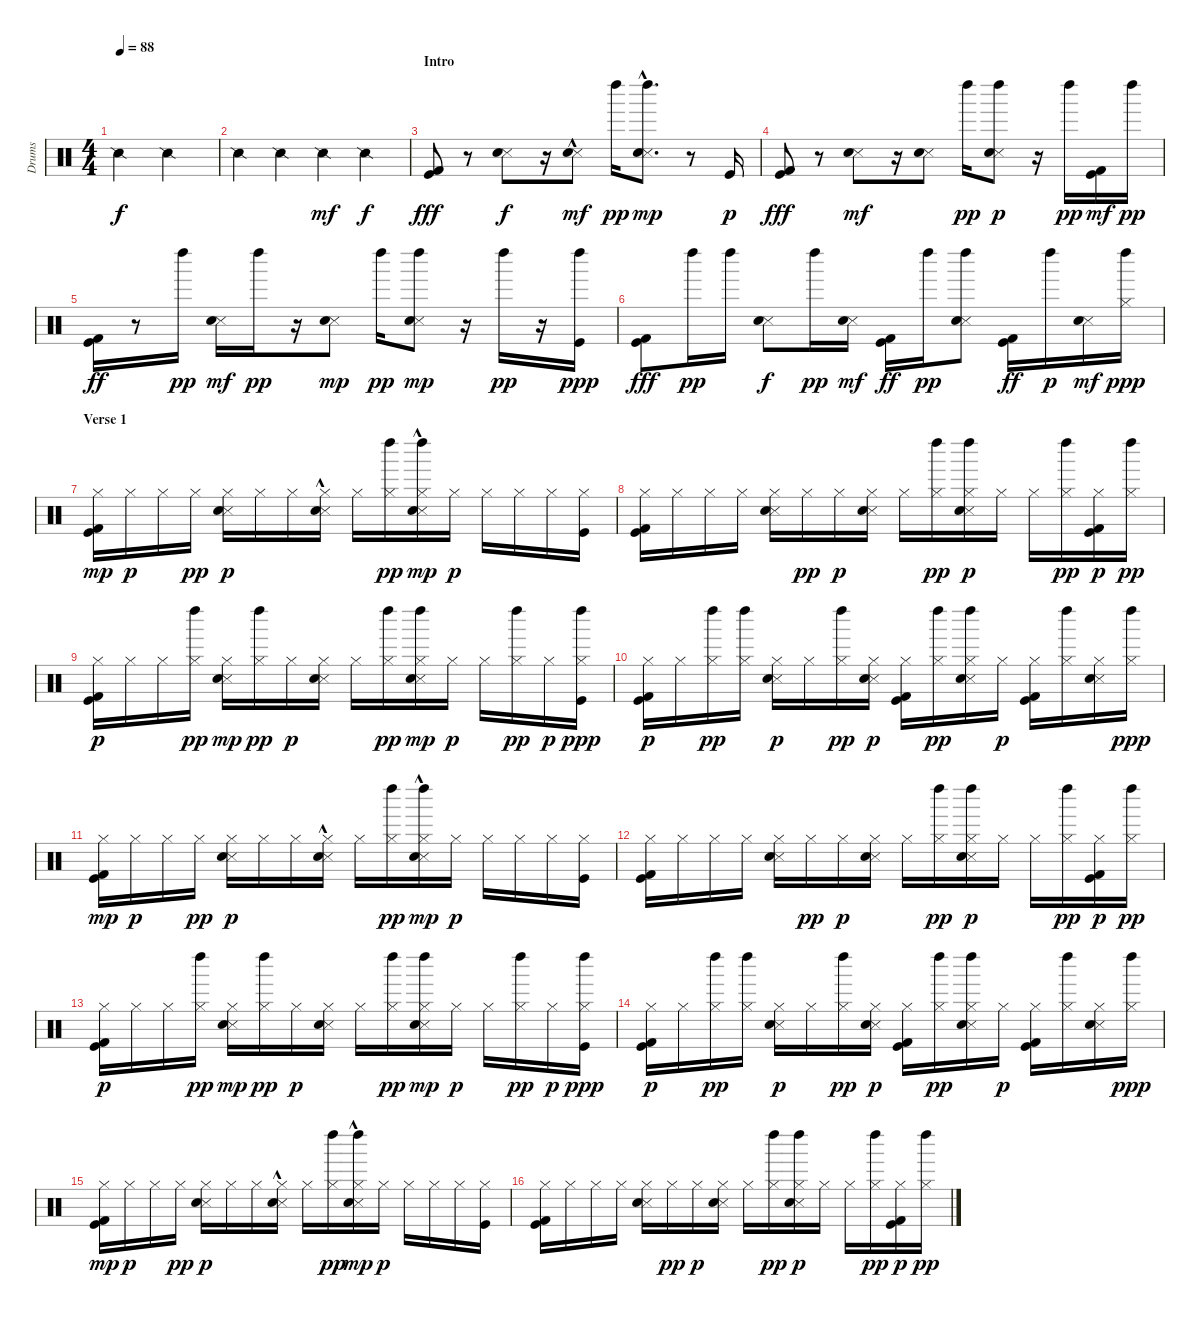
\track ("Drums" "Drums") {instrument percussion}
\staff {score}
\articulation defaults
\ts (4 4)
\tempo 88
\clef neutral
\ks c "Snare (side stick) 2".2{dy f} "Snare (side stick) 2".2
|
"Snare (side stick) 2".4 "Snare (side stick) 2".4 "Snare (side stick) 2".4{dy mf} "Snare (side stick) 2".4{dy f} |
\section ("" "Intro")
("Kick (hit) 2" "Kick (hit)").8{dy fff} r.8 ("Snare (side stick) 3" "Snare (hit) 2").8{dy f} r.16 ("Snare (side stick) 3"{hac} "Snare (hit) 2"{hac}).8{dy mf} "Left Maraca (hit)".16{dy pp} ("Snare (side stick) 3"{hac} "Snare (hit) 2" "Left Maraca (hit)").8{d dy mp} r.8 "Kick (hit)".16{dy p} |
("Kick (hit)" "Kick (hit) 2").8{dy fff} r.8 ("Snare (side stick) 3" "Snare (hit) 2").8{dy mf} r.16 ("Snare (side stick) 3" "Snare (hit) 2").8 "Left Maraca (hit)".16{dy pp} ("Snare (side stick) 3" "Snare (hit) 2" "Left Maraca (hit)").8{dy p} r.16 "Left Maraca (hit)".16{dy pp} ("Kick (hit)" "Kick (hit) 2").16{dy mf} "Left Maraca (hit)".16{dy pp} |
("Kick (hit)" "Kick (hit) 2").16{dy ff} r.8 "Left Maraca (hit)".16{dy pp} ("Snare (side stick) 3" "Snare (hit) 2").16{dy mf} "Left Maraca (hit)".16{dy pp} r.16 ("Snare (side stick) 3" "Snare (hit) 2").8{dy mp} "Left Maraca (hit)".16{dy pp} ("Snare (side stick) 3" "Snare (hit) 2" "Left Maraca (hit)").8{dy mp} r.16 "Left Maraca (hit)".16{dy pp} r.16 ("Kick (hit)" "Left Maraca (hit)").16{dy ppp} |
("Kick (hit)" "Kick (hit) 2").8{dy fff} "Left Maraca (hit)".16{dy pp} "Left Maraca (hit)".16 ("Snare (side stick) 3" "Snare (hit) 2").8{dy f} "Left Maraca (hit)".16{dy pp} ("Snare (side stick) 3" "Snare (hit) 2").16{dy mf} ("Kick (hit) 2" "Kick (hit)").16{dy ff} "Left Maraca (hit)".16{dy pp} ("Snare (side stick) 3" "Snare (hit) 2" "Left Maraca (hit)").8 ("Kick (hit)" "Kick (hit) 2").16{dy ff} "Left Maraca (hit)".16{dy p} ("Snare (side stick) 3" "Snare (hit) 2").16{dy mf} ("Hi-Hat (closed)" "Left Maraca (hit)").16{dy ppp} |
\section ("" "Verse 1")
("Kick (hit) 2" "Kick (hit)" "Hi-Hat (closed)").16{dy mp} "Hi-Hat (closed)".16{dy p} "Hi-Hat (closed)".16 "Hi-Hat (closed)".16{dy pp} ("Snare (side stick) 3" "Snare (hit) 2" "Hi-Hat (closed)").16{dy p} "Hi-Hat (closed)".16 "Hi-Hat (closed)".16 ("Snare (side stick) 3"{hac} "Snare (hit) 2"{hac} "Hi-Hat (closed)").16 "Hi-Hat (closed)".16 ("Hi-Hat (closed)" "Left Maraca (hit)").16{dy pp} ("Snare (side stick) 3"{hac} "Snare (hit) 2" "Hi-Hat (closed)" "Left Maraca (hit)").16{dy mp} "Hi-Hat (closed)".16{dy p} "Hi-Hat (closed)".16 "Hi-Hat (closed)".16 "Hi-Hat (closed)".16 ("Kick (hit)" "Hi-Hat (closed)").16 |
("Kick (hit)" "Kick (hit) 2" "Hi-Hat (closed)").16 "Hi-Hat (closed)".16 "Hi-Hat (closed)".16 "Hi-Hat (closed)".16 ("Snare (side stick) 3" "Snare (hit) 2" "Hi-Hat (closed)").16 "Hi-Hat (closed)".16{dy pp} "Hi-Hat (closed)".16{dy p} ("Snare (side stick) 3" "Snare (hit) 2" "Hi-Hat (closed)").16 "Hi-Hat (closed)".16 ("Hi-Hat (closed)" "Left Maraca (hit)").16{dy pp} ("Snare (side stick) 3" "Snare (hit) 2" "Hi-Hat (closed)" "Left Maraca (hit)").16{dy p} "Hi-Hat (closed)".16 "Hi-Hat (closed)".16 ("Hi-Hat (closed)" "Left Maraca (hit)").16{dy pp} ("Kick (hit)" "Kick (hit) 2" "Hi-Hat (closed)").16{dy p} ("Hi-Hat (closed)" "Left Maraca (hit)").16{dy pp} |
("Kick (hit)" "Kick (hit) 2" "Hi-Hat (closed)").16{dy p} "Hi-Hat (closed)".16 "Hi-Hat (closed)".16 ("Hi-Hat (closed)" "Left Maraca (hit)").16{dy pp} ("Snare (side stick) 3" "Snare (hit) 2" "Hi-Hat (closed)").16{dy mp} ("Hi-Hat (closed)" "Left Maraca (hit)").16{dy pp} "Hi-Hat (closed)".16{dy p} ("Snare (side stick) 3" "Snare (hit) 2" "Hi-Hat (closed)").16 "Hi-Hat (closed)".16 ("Hi-Hat (closed)" "Left Maraca (hit)").16{dy pp} ("Snare (side stick) 3" "Snare (hit) 2" "Hi-Hat (closed)" "Left Maraca (hit)").16{dy mp} "Hi-Hat (closed)".16{dy p} "Hi-Hat (closed)".16 ("Hi-Hat (closed)" "Left Maraca (hit)").16{dy pp} "Hi-Hat (closed)".16{dy p} ("Kick (hit)" "Hi-Hat (closed)" "Left Maraca (hit)").16{dy ppp} |
("Kick (hit)" "Kick (hit) 2" "Hi-Hat (closed)").16{dy p} "Hi-Hat (closed)".16 ("Hi-Hat (closed)" "Left Maraca (hit)").16{dy pp} ("Hi-Hat (closed)" "Left Maraca (hit)").16 ("Snare (side stick) 3" "Snare (hit) 2" "Hi-Hat (closed)").16{dy p} "Hi-Hat (closed)".16 ("Hi-Hat (closed)" "Left Maraca (hit)").16{dy pp} ("Snare (side stick) 3" "Snare (hit) 2" "Hi-Hat (closed)").16{dy p} ("Kick (hit) 2" "Kick (hit)" "Hi-Hat (closed)").16 ("Hi-Hat (closed)" "Left Maraca (hit)").16{dy pp} ("Snare (side stick) 3" "Snare (hit) 2" "Hi-Hat (closed)" "Left Maraca (hit)").16 "Hi-Hat (closed)".16{dy p} ("Kick (hit)" "Kick (hit) 2" "Hi-Hat (closed)").16 ("Hi-Hat (closed)" "Left Maraca (hit)").16 ("Snare (side stick) 3" "Snare (hit) 2" "Hi-Hat (closed)").16 ("Hi-Hat (closed)" "Left Maraca (hit)").16{dy ppp} |
("Kick (hit) 2" "Kick (hit)" "Hi-Hat (closed)").16{dy mp} "Hi-Hat (closed)".16{dy p} "Hi-Hat (closed)".16 "Hi-Hat (closed)".16{dy pp} ("Snare (side stick) 3" "Snare (hit) 2" "Hi-Hat (closed)").16{dy p} "Hi-Hat (closed)".16 "Hi-Hat (closed)".16 ("Snare (side stick) 3"{hac} "Snare (hit) 2"{hac} "Hi-Hat (closed)").16 "Hi-Hat (closed)".16 ("Hi-Hat (closed)" "Left Maraca (hit)").16{dy pp} ("Snare (side stick) 3"{hac} "Snare (hit) 2" "Hi-Hat (closed)" "Left Maraca (hit)").16{dy mp} "Hi-Hat (closed)".16{dy p} "Hi-Hat (closed)".16 "Hi-Hat (closed)".16 "Hi-Hat (closed)".16 ("Kick (hit)" "Hi-Hat (closed)").16 |
("Kick (hit)" "Kick (hit) 2" "Hi-Hat (closed)").16 "Hi-Hat (closed)".16 "Hi-Hat (closed)".16 "Hi-Hat (closed)".16 ("Snare (side stick) 3" "Snare (hit) 2" "Hi-Hat (closed)").16 "Hi-Hat (closed)".16{dy pp} "Hi-Hat (closed)".16{dy p} ("Snare (side stick) 3" "Snare (hit) 2" "Hi-Hat (closed)").16 "Hi-Hat (closed)".16 ("Hi-Hat (closed)" "Left Maraca (hit)").16{dy pp} ("Snare (side stick) 3" "Snare (hit) 2" "Hi-Hat (closed)" "Left Maraca (hit)").16{dy p} "Hi-Hat (closed)".16 "Hi-Hat (closed)".16 ("Hi-Hat (closed)" "Left Maraca (hit)").16{dy pp} ("Kick (hit)" "Kick (hit) 2" "Hi-Hat (closed)").16{dy p} ("Hi-Hat (closed)" "Left Maraca (hit)").16{dy pp} |
("Kick (hit)" "Kick (hit) 2" "Hi-Hat (closed)").16{dy p} "Hi-Hat (closed)".16 "Hi-Hat (closed)".16 ("Hi-Hat (closed)" "Left Maraca (hit)").16{dy pp} ("Snare (side stick) 3" "Snare (hit) 2" "Hi-Hat (closed)").16{dy mp} ("Hi-Hat (closed)" "Left Maraca (hit)").16{dy pp} "Hi-Hat (closed)".16{dy p} ("Snare (side stick) 3" "Snare (hit) 2" "Hi-Hat (closed)").16 "Hi-Hat (closed)".16 ("Hi-Hat (closed)" "Left Maraca (hit)").16{dy pp} ("Snare (side stick) 3" "Snare (hit) 2" "Hi-Hat (closed)" "Left Maraca (hit)").16{dy mp} "Hi-Hat (closed)".16{dy p} "Hi-Hat (closed)".16 ("Hi-Hat (closed)" "Left Maraca (hit)").16{dy pp} "Hi-Hat (closed)".16{dy p} ("Kick (hit)" "Hi-Hat (closed)" "Left Maraca (hit)").16{dy ppp} |
("Kick (hit)" "Kick (hit) 2" "Hi-Hat (closed)").16{dy p} "Hi-Hat (closed)".16 ("Hi-Hat (closed)" "Left Maraca (hit)").16{dy pp} ("Hi-Hat (closed)" "Left Maraca (hit)").16 ("Snare (side stick) 3" "Snare (hit) 2" "Hi-Hat (closed)").16{dy p} "Hi-Hat (closed)".16 ("Hi-Hat (closed)" "Left Maraca (hit)").16{dy pp} ("Snare (side stick) 3" "Snare (hit) 2" "Hi-Hat (closed)").16{dy p} ("Kick (hit) 2" "Kick (hit)" "Hi-Hat (closed)").16 ("Hi-Hat (closed)" "Left Maraca (hit)").16{dy pp} ("Snare (side stick) 3" "Snare (hit) 2" "Hi-Hat (closed)" "Left Maraca (hit)").16 "Hi-Hat (closed)".16{dy p} ("Kick (hit)" "Kick (hit) 2" "Hi-Hat (closed)").16 ("Hi-Hat (closed)" "Left Maraca (hit)").16 ("Snare (side stick) 3" "Snare (hit) 2" "Hi-Hat (closed)").16 ("Hi-Hat (closed)" "Left Maraca (hit)").16{dy ppp} |
("Kick (hit) 2" "Kick (hit)" "Hi-Hat (closed)").16{dy mp} "Hi-Hat (closed)".16{dy p} "Hi-Hat (closed)".16 "Hi-Hat (closed)".16{dy pp} ("Snare (side stick) 3" "Snare (hit) 2" "Hi-Hat (closed)").16{dy p} "Hi-Hat (closed)".16 "Hi-Hat (closed)".16 ("Snare (side stick) 3"{hac} "Snare (hit) 2"{hac} "Hi-Hat (closed)").16 "Hi-Hat (closed)".16 ("Hi-Hat (closed)" "Left Maraca (hit)").16{dy pp} ("Snare (side stick) 3"{hac} "Snare (hit) 2" "Hi-Hat (closed)" "Left Maraca (hit)").16{dy mp} "Hi-Hat (closed)".16{dy p} "Hi-Hat (closed)".16 "Hi-Hat (closed)".16 "Hi-Hat (closed)".16 ("Kick (hit)" "Hi-Hat (closed)").16 |
("Kick (hit)" "Kick (hit) 2" "Hi-Hat (closed)").16 "Hi-Hat (closed)".16 "Hi-Hat (closed)".16 "Hi-Hat (closed)".16 ("Snare (side stick) 3" "Snare (hit) 2" "Hi-Hat (closed)").16 "Hi-Hat (closed)".16{dy pp} "Hi-Hat (closed)".16{dy p} ("Snare (side stick) 3" "Snare (hit) 2" "Hi-Hat (closed)").16 "Hi-Hat (closed)".16 ("Hi-Hat (closed)" "Left Maraca (hit)").16{dy pp} ("Snare (side stick) 3" "Snare (hit) 2" "Hi-Hat (closed)" "Left Maraca (hit)").16{dy p} "Hi-Hat (closed)".16 "Hi-Hat (closed)".16 ("Hi-Hat (closed)" "Left Maraca (hit)").16{dy pp} ("Kick (hit)" "Kick (hit) 2" "Hi-Hat (closed)").16{dy p} ("Hi-Hat (closed)" "Left Maraca (hit)").16{dy pp}
